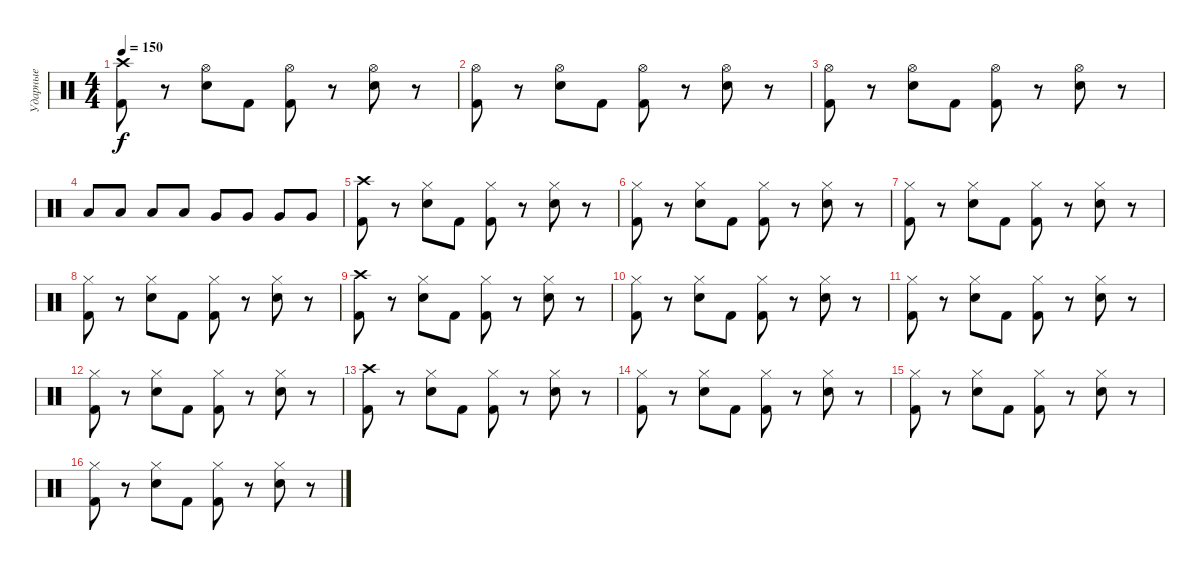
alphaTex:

\track ("Ударные" "Ударные") {instrument percussion}
\staff {score}
\articulation defaults
\ts (4 4)
\tempo 150
\clef neutral
\ks c
("Kick (hit) 2" "Crash high (hit)").8{dy f} r.8 ("Hi-Hat (open)" "Snare (hit) 2").8 "Kick (hit) 2".8 ("Hi-Hat (open)" "Kick (hit) 2").8 r.8 ("Hi-Hat (open)" "Snare (hit) 2").8 r.8 |
("Kick (hit) 2" "Hi-Hat (open)").8 r.8 ("Snare (hit) 2" "Hi-Hat (open)").8 "Kick (hit) 2".8 ("Kick (hit) 2" "Hi-Hat (open)").8 r.8 ("Snare (hit) 2" "Hi-Hat (open)").8 r.8 |
("Kick (hit) 2" "Hi-Hat (open)").8 r.8 ("Snare (hit) 2" "Hi-Hat (open)").8 "Kick (hit) 2".8 ("Kick (hit) 2" "Hi-Hat (open)").8 r.8 ("Snare (hit) 2" "Hi-Hat (open)").8 r.8 |
"Low Tom (hit)".8 "Low Tom (hit)".8 "Low Tom (hit)".8 "Low Tom (hit)".8 "Very Low Tom (hit)".8 "Very Low Tom (hit)".8 "Very Low Tom (hit)".8 "Very Low Tom (hit)".8 |
("Kick (hit) 2" "Crash high (hit)").8 r.8 ("Hi-Hat (closed)" "Snare (hit) 2").8 "Kick (hit) 2".8 ("Hi-Hat (closed)" "Kick (hit) 2").8 r.8 ("Hi-Hat (closed)" "Snare (hit) 2").8 r.8 |
("Kick (hit) 2" "Hi-Hat (closed)").8 r.8 ("Snare (hit) 2" "Hi-Hat (closed)").8 "Kick (hit) 2".8 ("Kick (hit) 2" "Hi-Hat (closed)").8 r.8 ("Snare (hit) 2" "Hi-Hat (closed)").8 r.8 |
("Kick (hit) 2" "Hi-Hat (closed)").8 r.8 ("Snare (hit) 2" "Hi-Hat (closed)").8 "Kick (hit) 2".8 ("Kick (hit) 2" "Hi-Hat (closed)").8 r.8 ("Snare (hit) 2" "Hi-Hat (closed)").8 r.8 |
("Kick (hit) 2" "Hi-Hat (closed)").8 r.8 ("Snare (hit) 2" "Hi-Hat (closed)").8 "Kick (hit) 2".8 ("Kick (hit) 2" "Hi-Hat (closed)").8 r.8 ("Snare (hit) 2" "Hi-Hat (closed)").8 r.8 |
("Kick (hit) 2" "Crash high (hit)").8 r.8 ("Hi-Hat (closed)" "Snare (hit) 2").8 "Kick (hit) 2".8 ("Hi-Hat (closed)" "Kick (hit) 2").8 r.8 ("Hi-Hat (closed)" "Snare (hit) 2").8 r.8 |
("Kick (hit) 2" "Hi-Hat (closed)").8 r.8 ("Snare (hit) 2" "Hi-Hat (closed)").8 "Kick (hit) 2".8 ("Kick (hit) 2" "Hi-Hat (closed)").8 r.8 ("Snare (hit) 2" "Hi-Hat (closed)").8 r.8 |
("Kick (hit) 2" "Hi-Hat (closed)").8 r.8 ("Snare (hit) 2" "Hi-Hat (closed)").8 "Kick (hit) 2".8 ("Kick (hit) 2" "Hi-Hat (closed)").8 r.8 ("Snare (hit) 2" "Hi-Hat (closed)").8 r.8 |
("Kick (hit) 2" "Hi-Hat (closed)").8 r.8 ("Snare (hit) 2" "Hi-Hat (closed)").8 "Kick (hit) 2".8 ("Kick (hit) 2" "Hi-Hat (closed)").8 r.8 ("Snare (hit) 2" "Hi-Hat (closed)").8 r.8 |
("Kick (hit) 2" "Crash high (hit)").8 r.8 ("Hi-Hat (closed)" "Snare (hit) 2").8 "Kick (hit) 2".8 ("Hi-Hat (closed)" "Kick (hit) 2").8 r.8 ("Hi-Hat (closed)" "Snare (hit) 2").8 r.8 |
("Kick (hit) 2" "Hi-Hat (closed)").8 r.8 ("Snare (hit) 2" "Hi-Hat (closed)").8 "Kick (hit) 2".8 ("Kick (hit) 2" "Hi-Hat (closed)").8 r.8 ("Snare (hit) 2" "Hi-Hat (closed)").8 r.8 |
("Kick (hit) 2" "Hi-Hat (closed)").8 r.8 ("Snare (hit) 2" "Hi-Hat (closed)").8 "Kick (hit) 2".8 ("Kick (hit) 2" "Hi-Hat (closed)").8 r.8 ("Snare (hit) 2" "Hi-Hat (closed)").8 r.8 |
("Kick (hit) 2" "Hi-Hat (closed)").8 r.8 ("Snare (hit) 2" "Hi-Hat (closed)").8 "Kick (hit) 2".8 ("Kick (hit) 2" "Hi-Hat (closed)").8 r.8 ("Snare (hit) 2" "Hi-Hat (closed)").8 r.8
